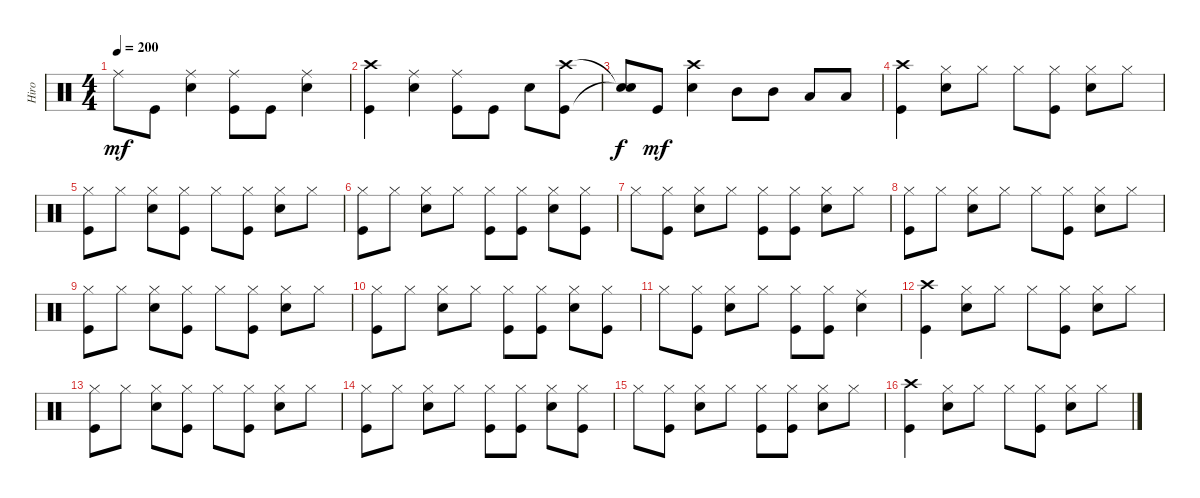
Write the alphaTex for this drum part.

\track ("Hiro" "Hiro") {instrument percussion}
\staff {score}
\articulation defaults
\ts (4 4)
\tempo 200
\clef neutral
\ks c "Ride (middle)".8{dy mf} "Kick (hit)".8
("Ride (middle)" "Electric Snare (hit)").4 ("Ride (middle)" "Kick (hit)").8 "Kick (hit)".8 ("Ride (middle)" "Electric Snare (hit)").4 |
("Crash high (hit)" "Kick (hit)").4 ("Electric Snare (hit)" "Ride (middle)").4 ("Ride (middle)" "Kick (hit)").8 "Kick (hit)".8 "Electric Snare (hit)".8 ("Kick (hit)" "Crash high (hit)").8 |
("Snare (hit)"{t} "Snare (hit)"{t}).8{dy f} "Kick (hit)".8{dy mf} ("Electric Snare (hit)" "Crash high (hit)").4 "Mid Tom (hit)".8 "Mid Tom (hit)".8 "Low Tom (hit)".8 "Low Tom (hit)".8 |
("Crash high (hit)" "Kick (hit)").4 ("Electric Snare (hit)" "Hi-Hat (closed)").8 "Hi-Hat (closed)".8 "Hi-Hat (closed)".8 ("Kick (hit)" "Hi-Hat (closed)").8 ("Electric Snare (hit)" "Hi-Hat (closed)").8 "Hi-Hat (closed)".8 |
("Kick (hit)" "Hi-Hat (closed)").8 "Hi-Hat (closed)".8 ("Electric Snare (hit)" "Hi-Hat (closed)").8 ("Kick (hit)" "Hi-Hat (closed)").8 "Hi-Hat (closed)".8 ("Kick (hit)" "Hi-Hat (closed)").8 ("Electric Snare (hit)" "Hi-Hat (closed)").8 "Hi-Hat (closed)".8 |
("Kick (hit)" "Hi-Hat (closed)").8 "Hi-Hat (closed)".8 ("Electric Snare (hit)" "Hi-Hat (closed)").8 "Hi-Hat (closed)".8 ("Kick (hit)" "Hi-Hat (closed)").8 ("Kick (hit)" "Hi-Hat (closed)").8 ("Electric Snare (hit)" "Hi-Hat (closed)").8 ("Kick (hit)" "Hi-Hat (closed)").8 |
"Hi-Hat (closed)".8 ("Kick (hit)" "Hi-Hat (closed)").8 ("Electric Snare (hit)" "Hi-Hat (closed)").8 "Hi-Hat (closed)".8 ("Kick (hit)" "Hi-Hat (closed)").8 ("Kick (hit)" "Hi-Hat (closed)").8 ("Electric Snare (hit)" "Hi-Hat (closed)").8 "Hi-Hat (closed)".8 |
("Kick (hit)" "Hi-Hat (closed)").8 "Hi-Hat (closed)".8 ("Hi-Hat (closed)" "Electric Snare (hit)").8 "Hi-Hat (closed)".8 "Hi-Hat (closed)".8 ("Hi-Hat (closed)" "Kick (hit)").8 ("Hi-Hat (closed)" "Electric Snare (hit)").8 "Hi-Hat (closed)".8 |
("Hi-Hat (closed)" "Kick (hit)").8 "Hi-Hat (closed)".8 ("Hi-Hat (closed)" "Electric Snare (hit)").8 ("Hi-Hat (closed)" "Kick (hit)").8 "Hi-Hat (closed)".8 ("Hi-Hat (closed)" "Kick (hit)").8 ("Hi-Hat (closed)" "Electric Snare (hit)").8 "Hi-Hat (closed)".8 |
("Hi-Hat (closed)" "Kick (hit)").8 "Hi-Hat (closed)".8 ("Hi-Hat (closed)" "Electric Snare (hit)").8 "Hi-Hat (closed)".8 ("Hi-Hat (closed)" "Kick (hit)").8 ("Hi-Hat (closed)" "Kick (hit)").8 ("Hi-Hat (closed)" "Electric Snare (hit)").8 ("Hi-Hat (closed)" "Kick (hit)").8 |
"Hi-Hat (closed)".8 ("Hi-Hat (closed)" "Kick (hit)").8 ("Hi-Hat (closed)" "Electric Snare (hit)").8 "Hi-Hat (closed)".8 ("Hi-Hat (closed)" "Kick (hit)").8 ("Hi-Hat (closed)" "Kick (hit)").8 ("Electric Snare (hit)" "Ride (middle)").4 |
("Kick (hit)" "Crash high (hit)").4 ("Hi-Hat (closed)" "Electric Snare (hit)").8 "Hi-Hat (closed)".8 "Hi-Hat (closed)".8 ("Hi-Hat (closed)" "Kick (hit)").8 ("Hi-Hat (closed)" "Electric Snare (hit)").8 "Hi-Hat (closed)".8 |
("Hi-Hat (closed)" "Kick (hit)").8 "Hi-Hat (closed)".8 ("Hi-Hat (closed)" "Electric Snare (hit)").8 ("Hi-Hat (closed)" "Kick (hit)").8 "Hi-Hat (closed)".8 ("Hi-Hat (closed)" "Kick (hit)").8 ("Hi-Hat (closed)" "Electric Snare (hit)").8 "Hi-Hat (closed)".8 |
("Hi-Hat (closed)" "Kick (hit)").8 "Hi-Hat (closed)".8 ("Hi-Hat (closed)" "Electric Snare (hit)").8 "Hi-Hat (closed)".8 ("Hi-Hat (closed)" "Kick (hit)").8 ("Hi-Hat (closed)" "Kick (hit)").8 ("Hi-Hat (closed)" "Electric Snare (hit)").8 ("Hi-Hat (closed)" "Kick (hit)").8 |
"Hi-Hat (closed)".8 ("Hi-Hat (closed)" "Kick (hit)").8 ("Hi-Hat (closed)" "Electric Snare (hit)").8 "Hi-Hat (closed)".8 ("Hi-Hat (closed)" "Kick (hit)").8 ("Hi-Hat (closed)" "Kick (hit)").8 ("Hi-Hat (closed)" "Electric Snare (hit)").8 "Hi-Hat (closed)".8 |
("Crash high (hit)" "Kick (hit)").4 ("Electric Snare (hit)" "Hi-Hat (closed)").8 "Hi-Hat (closed)".8 "Hi-Hat (closed)".8 ("Kick (hit)" "Hi-Hat (closed)").8 ("Electric Snare (hit)" "Hi-Hat (closed)").8 "Hi-Hat (closed)".8
